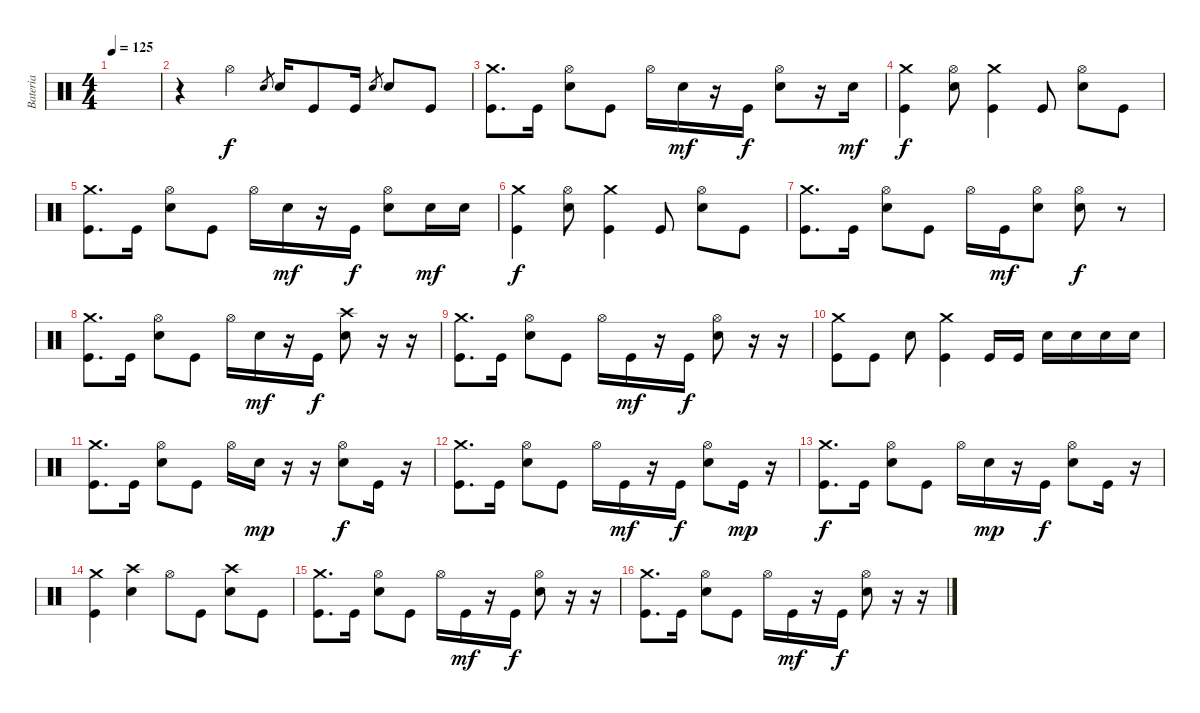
\track ("Bateria" "Bateria") {instrument percussion}
\staff {score}
\articulation defaults
\ts (4 4)
\tempo 125
\clef neutral
\ks c
|
r.4 "Hi-Hat (open)".4 "Electric Snare (hit)".8{gr} "Electric Snare (hit)".16 "Kick (hit)".8 "Kick (hit)".16 "Electric Snare (hit)".8{gr} "Electric Snare (hit)".8 "Kick (hit)".8 |
("Crash medium (hit)" "Kick (hit)").8{d} "Kick (hit)".16 ("Hi-Hat (open)" "Electric Snare (hit)").8 "Kick (hit)".8 "Hi-Hat (open)".16 "Electric Snare (hit)".16{dy mf} r.16 "Kick (hit)".16{dy f} ("Hi-Hat (open)" "Electric Snare (hit)").8 r.16 "Electric Snare (hit)".16{dy mf} |
("Crash medium (hit)" "Kick (hit)").4{dy f} ("Hi-Hat (open)" "Electric Snare (hit)").8 ("Crash medium (hit)" "Kick (hit)").4 "Kick (hit)".8 ("Hi-Hat (open)" "Electric Snare (hit)").8 "Kick (hit)".8 |
("Crash medium (hit)" "Kick (hit)").8{d} "Kick (hit)".16 ("Hi-Hat (open)" "Electric Snare (hit)").8 "Kick (hit)".8 "Hi-Hat (open)".16 "Electric Snare (hit)".16{dy mf} r.16 "Kick (hit)".16{dy f} ("Hi-Hat (open)" "Electric Snare (hit)").8 "Electric Snare (hit)".16{dy mf} "Electric Snare (hit)".16 |
("Crash medium (hit)" "Kick (hit)").4{dy f} ("Hi-Hat (open)" "Electric Snare (hit)").8 ("Crash medium (hit)" "Kick (hit)").4 "Kick (hit)".8 ("Hi-Hat (open)" "Electric Snare (hit)").8 "Kick (hit)".8 |
("Crash medium (hit)" "Kick (hit)").8{d} "Kick (hit)".16 ("Hi-Hat (open)" "Electric Snare (hit)").8 "Kick (hit)".8 "Hi-Hat (open)".16 "Kick (hit)".16{dy mf} ("Hi-Hat (open)" "Electric Snare (hit)").8 ("Hi-Hat (open)" "Electric Snare (hit)").8{dy f} r.8 |
("Crash medium (hit)" "Kick (hit)").8{d} "Kick (hit)".16 ("Hi-Hat (open)" "Electric Snare (hit)").8 "Kick (hit)".8 "Hi-Hat (open)".16 "Electric Snare (hit)".16{dy mf} r.16 "Kick (hit)".16{dy f} ("Crash high (hit)" "Electric Snare (hit)").8 r.16 r.16 |
("Crash medium (hit)" "Kick (hit)").8{d} "Kick (hit)".16 ("Hi-Hat (open)" "Electric Snare (hit)").8 "Kick (hit)".8 "Hi-Hat (open)".16 "Kick (hit)".16{dy mf} r.16 "Kick (hit)".16{dy f} ("Hi-Hat (open)" "Electric Snare (hit)").8 r.16 r.16 |
("Crash medium (hit)" "Kick (hit)").8 "Kick (hit)".8 "Electric Snare (hit)".8 ("Crash medium (hit)" "Kick (hit)").4 "Kick (hit)".16 "Kick (hit)".16 "Electric Snare (hit)".16 "Electric Snare (hit)".16 "Electric Snare (hit)".16 "Electric Snare (hit)".16 |
("Crash medium (hit)" "Kick (hit)").8{d} "Kick (hit)".16 ("Hi-Hat (open)" "Electric Snare (hit)").8 "Kick (hit)".8 "Hi-Hat (open)".16 "Electric Snare (hit)".16{dy mp} r.16 r.16 ("Hi-Hat (open)" "Electric Snare (hit)").8{dy f} "Kick (hit)".16 r.16 |
("Crash medium (hit)" "Kick (hit)").8{d} "Kick (hit)".16 ("Hi-Hat (open)" "Electric Snare (hit)").8 "Kick (hit)".8 "Hi-Hat (open)".16 "Kick (hit)".16{dy mf} r.16 "Kick (hit)".16{dy f} ("Hi-Hat (open)" "Electric Snare (hit)").8 "Kick (hit)".16{dy mp} r.16 |
("Crash medium (hit)" "Kick (hit)").8{d dy f} "Kick (hit)".16 ("Hi-Hat (open)" "Electric Snare (hit)").8 "Kick (hit)".8 "Hi-Hat (open)".16 "Electric Snare (hit)".16{dy mp} r.16 "Kick (hit)".16{dy f} ("Hi-Hat (open)" "Electric Snare (hit)").8 "Kick (hit)".16 r.16 |
("Crash medium (hit)" "Kick (hit)").4 ("Crash high (hit)" "Electric Snare (hit)").4 "Hi-Hat (open)".8 "Kick (hit)".8 ("Crash high (hit)" "Electric Snare (hit)").8 "Kick (hit)".8 |
("Crash medium (hit)" "Kick (hit)").8{d} "Kick (hit)".16 ("Hi-Hat (open)" "Electric Snare (hit)").8 "Kick (hit)".8 "Hi-Hat (open)".16 "Kick (hit)".16{dy mf} r.16 "Kick (hit)".16{dy f} ("Hi-Hat (open)" "Electric Snare (hit)").8 r.16 r.16 |
("Crash medium (hit)" "Kick (hit)").8{d} "Kick (hit)".16 ("Hi-Hat (open)" "Electric Snare (hit)").8 "Kick (hit)".8 "Hi-Hat (open)".16 "Kick (hit)".16{dy mf} r.16 "Kick (hit)".16{dy f} ("Hi-Hat (open)" "Electric Snare (hit)").8 r.16 r.16
